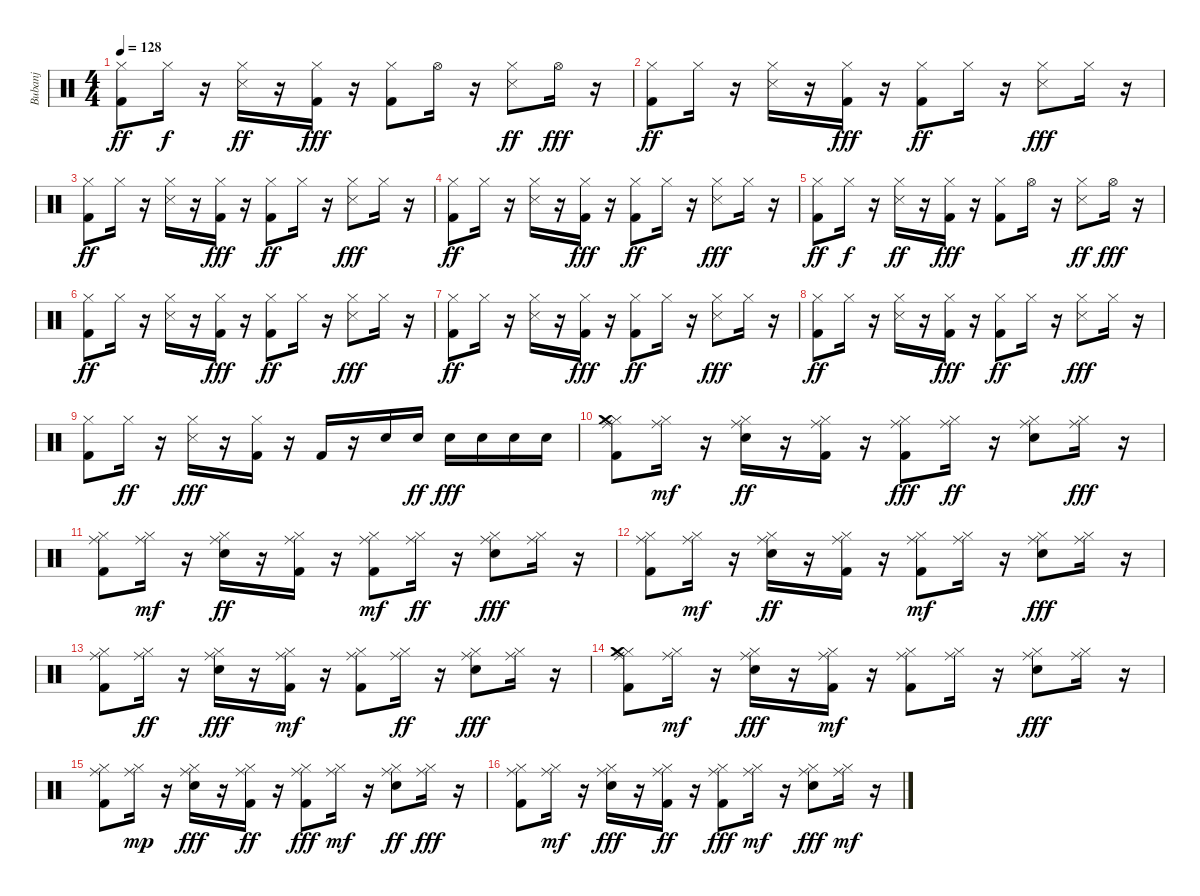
\track ("Bubanj" "Bubanj") {instrument percussion}
\staff {score}
\articulation defaults
\ts (4 4)
\tempo 128
\clef neutral
\ks c
("Kick (hit) 2" "Hi-Hat (closed)").8{dy ff} "Hi-Hat (closed)".16{dy f} r.16 ("Hi-Hat (closed)" "Snare (side stick) 3").16{dy ff} r.16 ("Kick (hit) 2" "Hi-Hat (closed)").16{dy fff} r.16 ("Hi-Hat (closed)" "Kick (hit) 2").8 "Hi-Hat (open)".16 r.16 ("Hi-Hat (closed)" "Snare (side stick) 3").8{dy ff} "Hi-Hat (open)".16{dy fff} r.16 |
("Kick (hit) 2" "Hi-Hat (closed)").8{dy ff} "Hi-Hat (closed)".16 r.16 ("Snare (side stick) 3" "Hi-Hat (closed)").16 r.16 ("Hi-Hat (closed)" "Kick (hit) 2").16{dy fff} r.16 ("Hi-Hat (closed)" "Kick (hit) 2").8{dy ff} "Hi-Hat (closed)".16 r.16 ("Hi-Hat (closed)" "Snare (side stick) 3").8{dy fff} "Hi-Hat (closed)".16 r.16 |
("Kick (hit) 2" "Hi-Hat (closed)").8{dy ff} "Hi-Hat (closed)".16 r.16 ("Snare (side stick) 3" "Hi-Hat (closed)").16 r.16 ("Hi-Hat (closed)" "Kick (hit) 2").16{dy fff} r.16 ("Hi-Hat (closed)" "Kick (hit) 2").8{dy ff} "Hi-Hat (closed)".16 r.16 ("Hi-Hat (closed)" "Snare (side stick) 3").8{dy fff} "Hi-Hat (closed)".16 r.16 |
("Kick (hit) 2" "Hi-Hat (closed)").8{dy ff} "Hi-Hat (closed)".16 r.16 ("Snare (side stick) 3" "Hi-Hat (closed)").16 r.16 ("Hi-Hat (closed)" "Kick (hit) 2").16{dy fff} r.16 ("Hi-Hat (closed)" "Kick (hit) 2").8{dy ff} "Hi-Hat (closed)".16 r.16 ("Hi-Hat (closed)" "Snare (side stick) 3").8{dy fff} "Hi-Hat (closed)".16 r.16 |
("Kick (hit) 2" "Hi-Hat (closed)").8{dy ff} "Hi-Hat (closed)".16{dy f} r.16 ("Hi-Hat (closed)" "Snare (side stick) 3").16{dy ff} r.16 ("Kick (hit) 2" "Hi-Hat (closed)").16{dy fff} r.16 ("Hi-Hat (closed)" "Kick (hit) 2").8 "Hi-Hat (open)".16 r.16 ("Hi-Hat (closed)" "Snare (side stick) 3").8{dy ff} "Hi-Hat (open)".16{dy fff} r.16 |
("Kick (hit) 2" "Hi-Hat (closed)").8{dy ff} "Hi-Hat (closed)".16 r.16 ("Snare (side stick) 3" "Hi-Hat (closed)").16 r.16 ("Hi-Hat (closed)" "Kick (hit) 2").16{dy fff} r.16 ("Hi-Hat (closed)" "Kick (hit) 2").8{dy ff} "Hi-Hat (closed)".16 r.16 ("Hi-Hat (closed)" "Snare (side stick) 3").8{dy fff} "Hi-Hat (closed)".16 r.16 |
("Kick (hit) 2" "Hi-Hat (closed)").8{dy ff} "Hi-Hat (closed)".16 r.16 ("Snare (side stick) 3" "Hi-Hat (closed)").16 r.16 ("Hi-Hat (closed)" "Kick (hit) 2").16{dy fff} r.16 ("Hi-Hat (closed)" "Kick (hit) 2").8{dy ff} "Hi-Hat (closed)".16 r.16 ("Hi-Hat (closed)" "Snare (side stick) 3").8{dy fff} "Hi-Hat (closed)".16 r.16 |
("Kick (hit) 2" "Hi-Hat (closed)").8{dy ff} "Hi-Hat (closed)".16 r.16 ("Snare (side stick) 3" "Hi-Hat (closed)").16 r.16 ("Hi-Hat (closed)" "Kick (hit) 2").16{dy fff} r.16 ("Hi-Hat (closed)" "Kick (hit) 2").8{dy ff} "Hi-Hat (closed)".16 r.16 ("Hi-Hat (closed)" "Snare (side stick) 3").8{dy fff} "Hi-Hat (closed)".16 r.16 |
("Kick (hit) 2" "Hi-Hat (closed)").8 "Hi-Hat (closed)".16{dy ff} r.16 ("Hi-Hat (closed)" "Snare (side stick) 3").16{dy fff} r.16 ("Hi-Hat (closed)" "Kick (hit) 2").16 r.16 "Kick (hit) 2".16 r.16 "Electric Snare (hit)".16 "Electric Snare (hit)".16{dy ff} "Electric Snare (hit)".16{dy fff} "Electric Snare (hit)".16 "Electric Snare (hit)".16 "Electric Snare (hit)".16 |
("Hi-Hat (closed)" "Kick (hit) 2" "Crash medium (hit)" "Ride (middle)").8 ("Hi-Hat (closed)" "Ride (middle)").16{dy mf} r.16 ("Hi-Hat (closed)" "Electric Snare (hit)" "Ride (middle)").16{dy ff} r.16 ("Kick (hit) 2" "Hi-Hat (closed)" "Ride (middle)").16 r.16 ("Hi-Hat (closed)" "Kick (hit) 2" "Ride (middle)").8{dy fff} ("Hi-Hat (closed)" "Ride (middle)").16{dy ff} r.16 ("Hi-Hat (closed)" "Electric Snare (hit)" "Ride (middle)").8 ("Hi-Hat (closed)" "Ride (middle)").16{dy fff} r.16 |
("Hi-Hat (closed)" "Kick (hit) 2" "Ride (middle)").8 ("Hi-Hat (closed)" "Ride (middle)").16{dy mf} r.16 ("Hi-Hat (closed)" "Electric Snare (hit)" "Ride (middle)").16{dy ff} r.16 ("Kick (hit) 2" "Hi-Hat (closed)" "Ride (middle)").16 r.16 ("Hi-Hat (closed)" "Kick (hit) 2" "Ride (middle)").8{dy mf} ("Hi-Hat (closed)" "Ride (middle)").16{dy ff} r.16 ("Hi-Hat (closed)" "Electric Snare (hit)" "Ride (middle)").8{dy fff} ("Hi-Hat (closed)" "Ride (middle)").16 r.16 |
("Hi-Hat (closed)" "Kick (hit) 2" "Ride (middle)").8 ("Hi-Hat (closed)" "Ride (middle)").16{dy mf} r.16 ("Hi-Hat (closed)" "Electric Snare (hit)" "Ride (middle)").16{dy ff} r.16 ("Kick (hit) 2" "Hi-Hat (closed)" "Ride (middle)").16 r.16 ("Hi-Hat (closed)" "Kick (hit) 2" "Ride (middle)").8{dy mf} ("Hi-Hat (closed)" "Ride (middle)").16 r.16 ("Hi-Hat (closed)" "Electric Snare (hit)" "Ride (middle)").8{dy fff} ("Hi-Hat (closed)" "Ride (middle)").16 r.16 |
("Hi-Hat (closed)" "Kick (hit) 2" "Ride (middle)").8 ("Hi-Hat (closed)" "Ride (middle)").16{dy ff} r.16 ("Hi-Hat (closed)" "Electric Snare (hit)" "Ride (middle)").16{dy fff} r.16 ("Kick (hit) 2" "Hi-Hat (closed)" "Ride (middle)").16{dy mf} r.16 ("Hi-Hat (closed)" "Kick (hit) 2" "Ride (middle)").8 ("Hi-Hat (closed)" "Ride (middle)").16{dy ff} r.16 ("Hi-Hat (closed)" "Electric Snare (hit)" "Ride (middle)").8{dy fff} ("Hi-Hat (closed)" "Ride (middle)").16 r.16 |
("Hi-Hat (closed)" "Kick (hit) 2" "Crash medium (hit)" "Ride (middle)").8 ("Hi-Hat (closed)" "Ride (middle)").16{dy mf} r.16 ("Hi-Hat (closed)" "Electric Snare (hit)" "Ride (middle)").16{dy fff} r.16 ("Kick (hit) 2" "Hi-Hat (closed)" "Ride (middle)").16{dy mf} r.16 ("Hi-Hat (closed)" "Kick (hit) 2" "Ride (middle)").8 ("Hi-Hat (closed)" "Ride (middle)").16 r.16 ("Hi-Hat (closed)" "Electric Snare (hit)" "Ride (middle)").8{dy fff} ("Hi-Hat (closed)" "Ride (middle)").16 r.16 |
("Hi-Hat (closed)" "Kick (hit) 2" "Ride (middle)").8 ("Hi-Hat (closed)" "Ride (middle)").16{dy mp} r.16 ("Hi-Hat (closed)" "Electric Snare (hit)" "Ride (middle)").16{dy fff} r.16 ("Kick (hit) 2" "Hi-Hat (closed)" "Ride (middle)").16{dy ff} r.16 ("Hi-Hat (closed)" "Kick (hit) 2" "Ride (middle)").8{dy fff} ("Hi-Hat (closed)" "Ride (middle)").16{dy mf} r.16 ("Hi-Hat (closed)" "Electric Snare (hit)" "Ride (middle)").8{dy ff} ("Hi-Hat (closed)" "Ride (middle)").16{dy fff} r.16 |
("Hi-Hat (closed)" "Kick (hit) 2" "Ride (middle)").8 ("Hi-Hat (closed)" "Ride (middle)").16{dy mf} r.16 ("Hi-Hat (closed)" "Electric Snare (hit)" "Ride (middle)").16{dy fff} r.16 ("Kick (hit) 2" "Hi-Hat (closed)" "Ride (middle)").16{dy ff} r.16 ("Hi-Hat (closed)" "Kick (hit) 2" "Ride (middle)").8{dy fff} ("Hi-Hat (closed)" "Ride (middle)").16{dy mf} r.16 ("Hi-Hat (closed)" "Electric Snare (hit)" "Ride (middle)").8{dy fff} ("Hi-Hat (closed)" "Ride (middle)").16{dy mf} r.16
